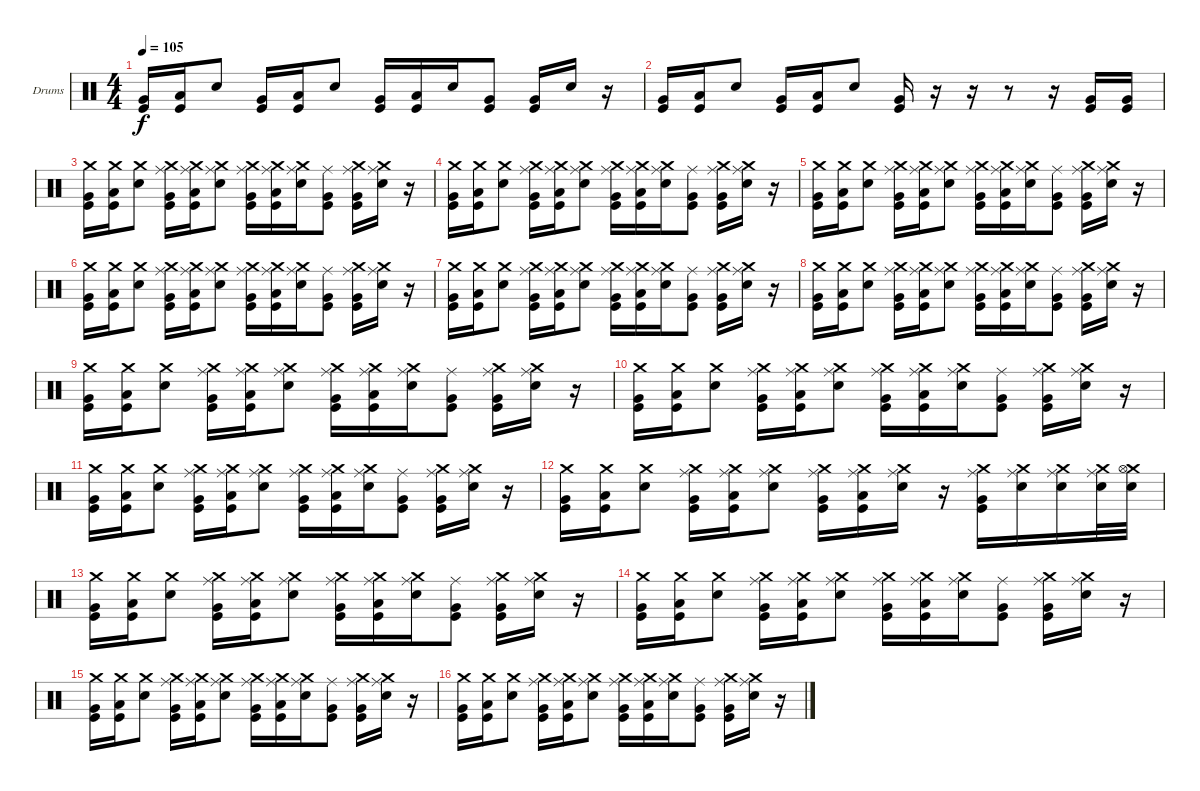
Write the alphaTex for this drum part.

\defaultSystemsLayout 4
\bracketExtendMode groupsimilarinstruments
\firstSystemTrackNameOrientation horizontal
\otherSystemsTrackNameOrientation horizontal
\track ("Steve" "Drums") {instrument percussion}
\staff {score}
\articulation defaults
\ts (4 4)
\tempo 105
\clef neutral
\ks c
("Very Low Tom (hit)" "Kick (hit)").16{dy f} ("Low Tom (hit)" "Kick (hit)").16 "Snare (hit) 2".8 ("Very Low Tom (hit)" "Kick (hit)").16 ("Low Tom (hit)" "Kick (hit)").16 "Snare (hit) 2".8 ("Very Low Tom (hit)" "Kick (hit)").16 ("Low Tom (hit)" "Kick (hit)").16 "Snare (hit) 2".16 ("Very Low Tom (hit)" "Kick (hit)").8 ("Very Low Tom (hit)" "Kick (hit)").16 "Snare (hit) 2".16 r.16 |
("Very Low Tom (hit)" "Kick (hit)").16 ("Low Tom (hit)" "Kick (hit)").16 "Snare (hit) 2".8 ("Very Low Tom (hit)" "Kick (hit)").16 ("Low Tom (hit)" "Kick (hit)").16 "Snare (hit) 2".8 ("Very Low Tom (hit)" "Kick (hit)").16 r.16 r.16 r.8 r.16 ("Very Low Tom (hit)" "Kick (hit)").16 ("Very Low Tom (hit)" "Kick (hit)").16 |
("Very Low Tom (hit)" "Crash medium (hit)" "Kick (hit)").16 ("Low Tom (hit)" "Crash medium (hit)" "Kick (hit)").16 ("Snare (hit) 2" "Crash medium (hit)").8 ("Very Low Tom (hit)" "Ride (middle)" "Kick (hit)" "Crash medium (hit)").16 ("Low Tom (hit)" "Ride (middle)" "Kick (hit)" "Crash medium (hit)").16 ("Snare (hit) 2" "Ride (middle)" "Crash medium (hit)").8 ("Very Low Tom (hit)" "Ride (middle)" "Kick (hit)" "Crash medium (hit)").16 ("Low Tom (hit)" "Ride (middle)" "Kick (hit)" "Crash medium (hit)").16 ("Snare (hit) 2" "Ride (middle)" "Crash medium (hit)").16 ("Very Low Tom (hit)" "Ride (middle)" "Kick (hit)").8 ("Very Low Tom (hit)" "Ride (middle)" "Kick (hit)" "Crash medium (hit)").16 ("Snare (hit) 2" "Ride (middle)" "Crash medium (hit)").16 r.16 |
("Very Low Tom (hit)" "Crash medium (hit)" "Kick (hit)").16 ("Low Tom (hit)" "Crash medium (hit)" "Kick (hit)").16 ("Snare (hit) 2" "Crash medium (hit)").8 ("Very Low Tom (hit)" "Ride (middle)" "Kick (hit)" "Crash medium (hit)").16 ("Low Tom (hit)" "Ride (middle)" "Kick (hit)" "Crash medium (hit)").16 ("Snare (hit) 2" "Ride (middle)" "Crash medium (hit)").8 ("Very Low Tom (hit)" "Ride (middle)" "Kick (hit)" "Crash medium (hit)").16 ("Low Tom (hit)" "Ride (middle)" "Kick (hit)" "Crash medium (hit)").16 ("Snare (hit) 2" "Ride (middle)" "Crash medium (hit)").16 ("Very Low Tom (hit)" "Ride (middle)" "Kick (hit)").8 ("Very Low Tom (hit)" "Ride (middle)" "Kick (hit)" "Crash medium (hit)").16 ("Snare (hit) 2" "Ride (middle)" "Crash medium (hit)").16 r.16 |
("Very Low Tom (hit)" "Crash medium (hit)" "Kick (hit)").16 ("Low Tom (hit)" "Crash medium (hit)" "Kick (hit)").16 ("Snare (hit) 2" "Crash medium (hit)").8 ("Very Low Tom (hit)" "Ride (middle)" "Kick (hit)" "Crash medium (hit)").16 ("Low Tom (hit)" "Ride (middle)" "Kick (hit)" "Crash medium (hit)").16 ("Snare (hit) 2" "Ride (middle)" "Crash medium (hit)").8 ("Very Low Tom (hit)" "Ride (middle)" "Kick (hit)" "Crash medium (hit)").16 ("Low Tom (hit)" "Ride (middle)" "Kick (hit)" "Crash medium (hit)").16 ("Snare (hit) 2" "Ride (middle)" "Crash medium (hit)").16 ("Very Low Tom (hit)" "Ride (middle)" "Kick (hit)").8 ("Very Low Tom (hit)" "Ride (middle)" "Kick (hit)" "Crash medium (hit)").16 ("Snare (hit) 2" "Ride (middle)" "Crash medium (hit)").16 r.16 |
("Very Low Tom (hit)" "Crash medium (hit)" "Kick (hit)").16 ("Low Tom (hit)" "Crash medium (hit)" "Kick (hit)").16 ("Snare (hit) 2" "Crash medium (hit)").8 ("Very Low Tom (hit)" "Ride (middle)" "Kick (hit)" "Crash medium (hit)").16 ("Low Tom (hit)" "Ride (middle)" "Kick (hit)" "Crash medium (hit)").16 ("Snare (hit) 2" "Ride (middle)" "Crash medium (hit)").8 ("Very Low Tom (hit)" "Ride (middle)" "Kick (hit)" "Crash medium (hit)").16 ("Low Tom (hit)" "Ride (middle)" "Kick (hit)" "Crash medium (hit)").16 ("Snare (hit) 2" "Ride (middle)" "Crash medium (hit)").16 ("Very Low Tom (hit)" "Ride (middle)" "Kick (hit)").8 ("Very Low Tom (hit)" "Ride (middle)" "Kick (hit)" "Crash medium (hit)").16 ("Snare (hit) 2" "Ride (middle)" "Crash medium (hit)").16 r.16 |
("Very Low Tom (hit)" "Crash medium (hit)" "Kick (hit)").16 ("Low Tom (hit)" "Crash medium (hit)" "Kick (hit)").16 ("Snare (hit) 2" "Crash medium (hit)").8 ("Very Low Tom (hit)" "Ride (middle)" "Kick (hit)" "Crash medium (hit)").16 ("Low Tom (hit)" "Ride (middle)" "Kick (hit)" "Crash medium (hit)").16 ("Snare (hit) 2" "Ride (middle)" "Crash medium (hit)").8 ("Very Low Tom (hit)" "Ride (middle)" "Kick (hit)" "Crash medium (hit)").16 ("Low Tom (hit)" "Ride (middle)" "Kick (hit)" "Crash medium (hit)").16 ("Snare (hit) 2" "Ride (middle)" "Crash medium (hit)").16 ("Very Low Tom (hit)" "Ride (middle)" "Kick (hit)").8 ("Very Low Tom (hit)" "Ride (middle)" "Kick (hit)" "Crash medium (hit)").16 ("Snare (hit) 2" "Ride (middle)" "Crash medium (hit)").16 r.16 |
("Very Low Tom (hit)" "Crash medium (hit)" "Kick (hit)").16 ("Low Tom (hit)" "Crash medium (hit)" "Kick (hit)").16 ("Snare (hit) 2" "Crash medium (hit)").8 ("Very Low Tom (hit)" "Ride (middle)" "Kick (hit)" "Crash medium (hit)").16 ("Low Tom (hit)" "Ride (middle)" "Kick (hit)" "Crash medium (hit)").16 ("Snare (hit) 2" "Ride (middle)" "Crash medium (hit)").8 ("Very Low Tom (hit)" "Ride (middle)" "Kick (hit)" "Crash medium (hit)").16 ("Low Tom (hit)" "Ride (middle)" "Kick (hit)" "Crash medium (hit)").16 ("Snare (hit) 2" "Ride (middle)" "Crash medium (hit)").16 ("Very Low Tom (hit)" "Ride (middle)" "Kick (hit)").8 ("Very Low Tom (hit)" "Ride (middle)" "Kick (hit)" "Crash medium (hit)").16 ("Snare (hit) 2" "Ride (middle)" "Crash medium (hit)").16 r.16 |
("Very Low Tom (hit)" "Crash medium (hit)" "Kick (hit)").16 ("Low Tom (hit)" "Crash medium (hit)" "Kick (hit)").16 ("Snare (hit) 2" "Crash medium (hit)").8 ("Very Low Tom (hit)" "Ride (middle)" "Kick (hit)" "Crash medium (hit)").16 ("Low Tom (hit)" "Ride (middle)" "Kick (hit)" "Crash medium (hit)").16 ("Snare (hit) 2" "Ride (middle)" "Crash medium (hit)").8 ("Very Low Tom (hit)" "Ride (middle)" "Kick (hit)" "Crash medium (hit)").16 ("Low Tom (hit)" "Ride (middle)" "Kick (hit)" "Crash medium (hit)").16 ("Snare (hit) 2" "Ride (middle)" "Crash medium (hit)").16 ("Very Low Tom (hit)" "Ride (middle)" "Kick (hit)").8 ("Very Low Tom (hit)" "Ride (middle)" "Kick (hit)" "Crash medium (hit)").16 ("Snare (hit) 2" "Ride (middle)" "Crash medium (hit)").16 r.16 |
("Very Low Tom (hit)" "Crash medium (hit)" "Kick (hit)").16 ("Low Tom (hit)" "Crash medium (hit)" "Kick (hit)").16 ("Snare (hit) 2" "Crash medium (hit)").8 ("Very Low Tom (hit)" "Ride (middle)" "Kick (hit)" "Crash medium (hit)").16 ("Low Tom (hit)" "Ride (middle)" "Kick (hit)" "Crash medium (hit)").16 ("Snare (hit) 2" "Ride (middle)" "Crash medium (hit)").8 ("Very Low Tom (hit)" "Ride (middle)" "Kick (hit)" "Crash medium (hit)").16 ("Low Tom (hit)" "Ride (middle)" "Kick (hit)" "Crash medium (hit)").16 ("Snare (hit) 2" "Ride (middle)" "Crash medium (hit)").16 ("Very Low Tom (hit)" "Ride (middle)" "Kick (hit)").8 ("Very Low Tom (hit)" "Ride (middle)" "Kick (hit)" "Crash medium (hit)").16 ("Snare (hit) 2" "Ride (middle)" "Crash medium (hit)").16 r.16 |
("Very Low Tom (hit)" "Crash medium (hit)" "Kick (hit)").16 ("Low Tom (hit)" "Crash medium (hit)" "Kick (hit)").16 ("Snare (hit) 2" "Crash medium (hit)").8 ("Very Low Tom (hit)" "Ride (middle)" "Kick (hit)" "Crash medium (hit)").16 ("Low Tom (hit)" "Ride (middle)" "Kick (hit)" "Crash medium (hit)").16 ("Snare (hit) 2" "Ride (middle)" "Crash medium (hit)").8 ("Very Low Tom (hit)" "Ride (middle)" "Kick (hit)" "Crash medium (hit)").16 ("Low Tom (hit)" "Ride (middle)" "Kick (hit)" "Crash medium (hit)").16 ("Snare (hit) 2" "Ride (middle)" "Crash medium (hit)").16 ("Very Low Tom (hit)" "Ride (middle)" "Kick (hit)").8 ("Very Low Tom (hit)" "Ride (middle)" "Kick (hit)" "Crash medium (hit)").16 ("Snare (hit) 2" "Ride (middle)" "Crash medium (hit)").16 r.16 |
("Very Low Tom (hit)" "Crash medium (hit)" "Kick (hit)").16 ("Low Tom (hit)" "Crash medium (hit)" "Kick (hit)").16 ("Snare (hit) 2" "Crash medium (hit)").8 ("Very Low Tom (hit)" "Ride (middle)" "Kick (hit)" "Crash medium (hit)").16 ("Low Tom (hit)" "Ride (middle)" "Kick (hit)" "Crash medium (hit)").16 ("Snare (hit) 2" "Ride (middle)" "Crash medium (hit)").8 ("Very Low Tom (hit)" "Ride (middle)" "Kick (hit)" "Crash medium (hit)").16 ("Low Tom (hit)" "Ride (middle)" "Kick (hit)" "Crash medium (hit)").16 ("Snare (hit) 2" "Ride (middle)" "Crash medium (hit)").16 r.16 ("Very Low Tom (hit)" "Ride (middle)" "Kick (hit)" "Crash medium (hit)").16 ("Snare (hit) 2" "Ride (middle)" "Crash medium (hit)").16 ("Snare (hit) 2" "Ride (middle)" "Crash medium (hit)").16 ("Snare (hit) 2" "Ride (middle)" "Crash medium (hit)").32 ("Snare (hit) 2" "Crash medium (hit)" "Hi-Hat (open)").32 |
("Very Low Tom (hit)" "Crash medium (hit)" "Kick (hit)").16 ("Low Tom (hit)" "Crash medium (hit)" "Kick (hit)").16 ("Snare (hit) 2" "Crash medium (hit)").8 ("Very Low Tom (hit)" "Ride (middle)" "Kick (hit)" "Crash medium (hit)").16 ("Low Tom (hit)" "Ride (middle)" "Kick (hit)" "Crash medium (hit)").16 ("Snare (hit) 2" "Ride (middle)" "Crash medium (hit)").8 ("Very Low Tom (hit)" "Ride (middle)" "Kick (hit)" "Crash medium (hit)").16 ("Low Tom (hit)" "Ride (middle)" "Kick (hit)" "Crash medium (hit)").16 ("Snare (hit) 2" "Ride (middle)" "Crash medium (hit)").16 ("Very Low Tom (hit)" "Ride (middle)" "Kick (hit)").8 ("Very Low Tom (hit)" "Ride (middle)" "Kick (hit)" "Crash medium (hit)").16 ("Snare (hit) 2" "Ride (middle)" "Crash medium (hit)").16 r.16 |
("Very Low Tom (hit)" "Crash medium (hit)" "Kick (hit)").16 ("Low Tom (hit)" "Crash medium (hit)" "Kick (hit)").16 ("Snare (hit) 2" "Crash medium (hit)").8 ("Very Low Tom (hit)" "Ride (middle)" "Kick (hit)" "Crash medium (hit)").16 ("Low Tom (hit)" "Ride (middle)" "Kick (hit)" "Crash medium (hit)").16 ("Snare (hit) 2" "Ride (middle)" "Crash medium (hit)").8 ("Very Low Tom (hit)" "Ride (middle)" "Kick (hit)" "Crash medium (hit)").16 ("Low Tom (hit)" "Ride (middle)" "Kick (hit)" "Crash medium (hit)").16 ("Snare (hit) 2" "Ride (middle)" "Crash medium (hit)").16 ("Very Low Tom (hit)" "Ride (middle)" "Kick (hit)").8 ("Very Low Tom (hit)" "Ride (middle)" "Kick (hit)" "Crash medium (hit)").16 ("Snare (hit) 2" "Ride (middle)" "Crash medium (hit)").16 r.16 |
("Very Low Tom (hit)" "Crash medium (hit)" "Kick (hit)").16 ("Low Tom (hit)" "Crash medium (hit)" "Kick (hit)").16 ("Snare (hit) 2" "Crash medium (hit)").8 ("Very Low Tom (hit)" "Ride (middle)" "Kick (hit)" "Crash medium (hit)").16 ("Low Tom (hit)" "Ride (middle)" "Kick (hit)" "Crash medium (hit)").16 ("Snare (hit) 2" "Ride (middle)" "Crash medium (hit)").8 ("Very Low Tom (hit)" "Ride (middle)" "Kick (hit)" "Crash medium (hit)").16 ("Low Tom (hit)" "Ride (middle)" "Kick (hit)" "Crash medium (hit)").16 ("Snare (hit) 2" "Ride (middle)" "Crash medium (hit)").16 ("Very Low Tom (hit)" "Ride (middle)" "Kick (hit)").8 ("Very Low Tom (hit)" "Ride (middle)" "Kick (hit)" "Crash medium (hit)").16 ("Snare (hit) 2" "Ride (middle)" "Crash medium (hit)").16 r.16 |
("Very Low Tom (hit)" "Crash medium (hit)" "Kick (hit)").16 ("Low Tom (hit)" "Crash medium (hit)" "Kick (hit)").16 ("Snare (hit) 2" "Crash medium (hit)").8 ("Very Low Tom (hit)" "Ride (middle)" "Kick (hit)" "Crash medium (hit)").16 ("Low Tom (hit)" "Ride (middle)" "Kick (hit)" "Crash medium (hit)").16 ("Snare (hit) 2" "Ride (middle)" "Crash medium (hit)").8 ("Very Low Tom (hit)" "Ride (middle)" "Kick (hit)" "Crash medium (hit)").16 ("Low Tom (hit)" "Ride (middle)" "Kick (hit)" "Crash medium (hit)").16 ("Snare (hit) 2" "Ride (middle)" "Crash medium (hit)").16 ("Very Low Tom (hit)" "Ride (middle)" "Kick (hit)").8 ("Very Low Tom (hit)" "Ride (middle)" "Kick (hit)" "Crash medium (hit)").16 ("Snare (hit) 2" "Ride (middle)" "Crash medium (hit)").16 r.16
